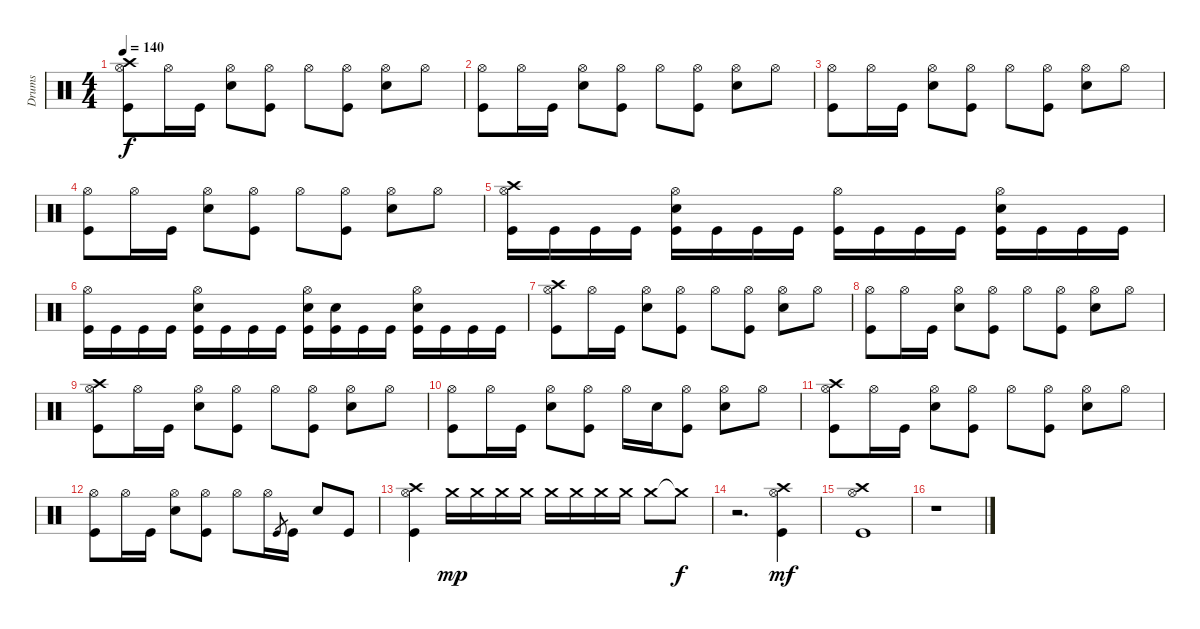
\track ("Drums" "Drums") {instrument percussion}
\staff {score}
\articulation defaults
\ts (4 4)
\tempo 140
\clef neutral
\ks c
("Crash high (hit)" "Hi-Hat (open)" "Kick (hit)").8{dy f} "Hi-Hat (open)".16 "Kick (hit)".16 ("Hi-Hat (open)" "Electric Snare (hit)").8 ("Hi-Hat (open)" "Kick (hit)").8 "Hi-Hat (open)".8 ("Hi-Hat (open)" "Kick (hit)").8 ("Hi-Hat (open)" "Electric Snare (hit)").8 "Hi-Hat (open)".8 |
("Hi-Hat (open)" "Kick (hit)").8 "Hi-Hat (open)".16 "Kick (hit)".16 ("Hi-Hat (open)" "Electric Snare (hit)").8 ("Hi-Hat (open)" "Kick (hit)").8 "Hi-Hat (open)".8 ("Hi-Hat (open)" "Kick (hit)").8 ("Hi-Hat (open)" "Electric Snare (hit)").8 "Hi-Hat (open)".8 |
("Hi-Hat (open)" "Kick (hit)").8 "Hi-Hat (open)".16 "Kick (hit)".16 ("Hi-Hat (open)" "Electric Snare (hit)").8 ("Hi-Hat (open)" "Kick (hit)").8 "Hi-Hat (open)".8 ("Hi-Hat (open)" "Kick (hit)").8 ("Hi-Hat (open)" "Electric Snare (hit)").8 "Hi-Hat (open)".8 |
("Hi-Hat (open)" "Kick (hit)").8 "Hi-Hat (open)".16 "Kick (hit)".16 ("Hi-Hat (open)" "Electric Snare (hit)").8 ("Hi-Hat (open)" "Kick (hit)").8 "Hi-Hat (open)".8 ("Hi-Hat (open)" "Kick (hit)").8 ("Hi-Hat (open)" "Electric Snare (hit)").8 "Hi-Hat (open)".8 |
("Crash high (hit)" "Hi-Hat (open)" "Kick (hit)").16 "Kick (hit)".16 "Kick (hit)".16 "Kick (hit)".16 ("Hi-Hat (open)" "Electric Snare (hit)" "Kick (hit)").16 "Kick (hit)".16 "Kick (hit)".16 "Kick (hit)".16 ("Hi-Hat (open)" "Kick (hit)").16 "Kick (hit)".16 "Kick (hit)".16 "Kick (hit)".16 ("Hi-Hat (open)" "Electric Snare (hit)" "Kick (hit)").16 "Kick (hit)".16 "Kick (hit)".16 "Kick (hit)".16 |
("Hi-Hat (open)" "Kick (hit)").16 "Kick (hit)".16 "Kick (hit)".16 "Kick (hit)".16 ("Hi-Hat (open)" "Electric Snare (hit)" "Kick (hit)").16 "Kick (hit)".16 "Kick (hit)".16 "Kick (hit)".16 ("Hi-Hat (open)" "Electric Snare (hit)" "Kick (hit)").16 ("Electric Snare (hit)" "Kick (hit)").16 "Kick (hit)".16 "Kick (hit)".16 ("Hi-Hat (open)" "Electric Snare (hit)" "Kick (hit)").16 "Kick (hit)".16 "Kick (hit)".16 "Kick (hit)".16 |
("Crash high (hit)" "Hi-Hat (open)" "Kick (hit)").8 "Hi-Hat (open)".16 "Kick (hit)".16 ("Hi-Hat (open)" "Electric Snare (hit)").8 ("Hi-Hat (open)" "Kick (hit)").8 "Hi-Hat (open)".8 ("Hi-Hat (open)" "Kick (hit)").8 ("Hi-Hat (open)" "Electric Snare (hit)").8 "Hi-Hat (open)".8 |
("Hi-Hat (open)" "Kick (hit)").8 "Hi-Hat (open)".16 "Kick (hit)".16 ("Hi-Hat (open)" "Electric Snare (hit)").8 ("Hi-Hat (open)" "Kick (hit)").8 "Hi-Hat (open)".8 ("Hi-Hat (open)" "Kick (hit)").8 ("Hi-Hat (open)" "Electric Snare (hit)").8 "Hi-Hat (open)".8 |
("Crash high (hit)" "Hi-Hat (open)" "Kick (hit)").8 "Hi-Hat (open)".16 "Kick (hit)".16 ("Hi-Hat (open)" "Electric Snare (hit)").8 ("Hi-Hat (open)" "Kick (hit)").8 "Hi-Hat (open)".8 ("Hi-Hat (open)" "Kick (hit)").8 ("Hi-Hat (open)" "Electric Snare (hit)").8 "Hi-Hat (open)".8 |
("Hi-Hat (open)" "Kick (hit)").8 "Hi-Hat (open)".16 "Kick (hit)".16 ("Hi-Hat (open)" "Electric Snare (hit)").8 ("Hi-Hat (open)" "Kick (hit)").8 "Hi-Hat (open)".16 "Electric Snare (hit)".16 ("Hi-Hat (open)" "Kick (hit)").8 ("Hi-Hat (open)" "Electric Snare (hit)").8 "Hi-Hat (open)".8 |
("Crash high (hit)" "Hi-Hat (open)" "Kick (hit)").8 "Hi-Hat (open)".16 "Kick (hit)".16 ("Hi-Hat (open)" "Electric Snare (hit)").8 ("Hi-Hat (open)" "Kick (hit)").8 "Hi-Hat (open)".8 ("Hi-Hat (open)" "Kick (hit)").8 ("Hi-Hat (open)" "Electric Snare (hit)").8 "Hi-Hat (open)".8 |
("Hi-Hat (open)" "Kick (hit)").8 "Hi-Hat (open)".16 "Kick (hit)".16 ("Hi-Hat (open)" "Electric Snare (hit)").8 ("Hi-Hat (open)" "Kick (hit)").8 "Hi-Hat (open)".8 "Hi-Hat (open)".16 "Kick (hit)".8{gr} "Kick (hit)".16 "Electric Snare (hit)".8 "Kick (hit)".8 |
("Crash high (hit)" "Hi-Hat (open)" "Kick (hit)").4 "Crash medium (hit)".16{dy mp} "Crash medium (hit)".16 "Crash medium (hit)".16 "Crash medium (hit)".16 "Crash medium (hit)".16 "Crash medium (hit)".16 "Crash medium (hit)".16 "Crash medium (hit)".16 "Crash medium (hit)".8 "Crash medium (hit)"{t}.8{dy f} |
r.2{d} ("Crash high (hit)" "Hi-Hat (open)" "Kick (hit)").4{dy mf} |
("Crash high (hit)" "Hi-Hat (open)" "Kick (hit)").1 |
r.1
